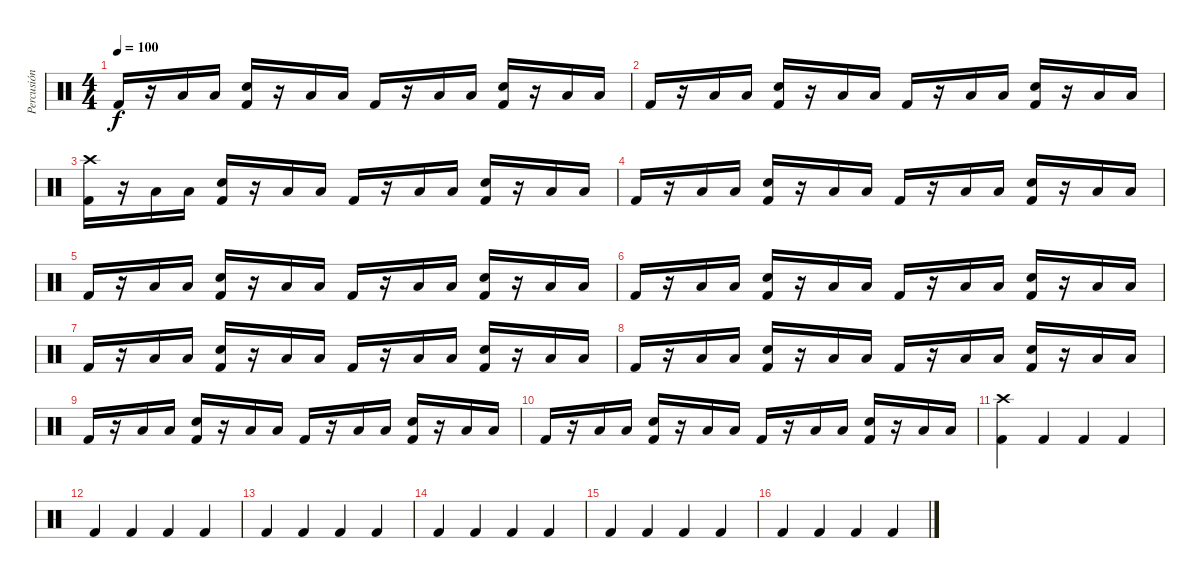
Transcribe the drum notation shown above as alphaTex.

\track ("Percusión" "Percusión") {instrument percussion}
\staff {score}
\articulation defaults
\ts (4 4)
\tempo 100
\clef neutral
\ks c "Kick (hit) 2".16{dy f}
r.16 "Low Tom (hit)".16 "Low Tom (hit)".16 ("Kick (hit) 2" "Snare (hit) 2").16 r.16 "Low Tom (hit)".16 "Low Tom (hit)".16 "Kick (hit) 2".16 r.16 "Low Tom (hit)".16 "Low Tom (hit)".16 ("Kick (hit) 2" "Snare (hit) 2").16 r.16 "Low Tom (hit)".16 "Low Tom (hit)".16 |
"Kick (hit) 2".16 r.16 "Low Tom (hit)".16 "Low Tom (hit)".16 ("Kick (hit) 2" "Snare (hit) 2").16 r.16 "Low Tom (hit)".16 "Low Tom (hit)".16 "Kick (hit) 2".16 r.16 "Low Tom (hit)".16 "Low Tom (hit)".16 ("Kick (hit) 2" "Snare (hit) 2").16 r.16 "Low Tom (hit)".16 "Low Tom (hit)".16 |
("Kick (hit) 2" "Crash high (hit)").16 r.16 "Low Tom (hit)".16 "Low Tom (hit)".16 ("Kick (hit) 2" "Snare (hit) 2").16 r.16 "Low Tom (hit)".16 "Low Tom (hit)".16 "Kick (hit) 2".16 r.16 "Low Tom (hit)".16 "Low Tom (hit)".16 ("Kick (hit) 2" "Snare (hit) 2").16 r.16 "Low Tom (hit)".16 "Low Tom (hit)".16 |
"Kick (hit) 2".16 r.16 "Low Tom (hit)".16 "Low Tom (hit)".16 ("Kick (hit) 2" "Snare (hit) 2").16 r.16 "Low Tom (hit)".16 "Low Tom (hit)".16 "Kick (hit) 2".16 r.16 "Low Tom (hit)".16 "Low Tom (hit)".16 ("Kick (hit) 2" "Snare (hit) 2").16 r.16 "Low Tom (hit)".16 "Low Tom (hit)".16 |
"Kick (hit) 2".16 r.16 "Low Tom (hit)".16 "Low Tom (hit)".16 ("Kick (hit) 2" "Snare (hit) 2").16 r.16 "Low Tom (hit)".16 "Low Tom (hit)".16 "Kick (hit) 2".16 r.16 "Low Tom (hit)".16 "Low Tom (hit)".16 ("Kick (hit) 2" "Snare (hit) 2").16 r.16 "Low Tom (hit)".16 "Low Tom (hit)".16 |
"Kick (hit) 2".16 r.16 "Low Tom (hit)".16 "Low Tom (hit)".16 ("Kick (hit) 2" "Snare (hit) 2").16 r.16 "Low Tom (hit)".16 "Low Tom (hit)".16 "Kick (hit) 2".16 r.16 "Low Tom (hit)".16 "Low Tom (hit)".16 ("Kick (hit) 2" "Snare (hit) 2").16 r.16 "Low Tom (hit)".16 "Low Tom (hit)".16 |
"Kick (hit) 2".16 r.16 "Low Tom (hit)".16 "Low Tom (hit)".16 ("Kick (hit) 2" "Snare (hit) 2").16 r.16 "Low Tom (hit)".16 "Low Tom (hit)".16 "Kick (hit) 2".16 r.16 "Low Tom (hit)".16 "Low Tom (hit)".16 ("Kick (hit) 2" "Snare (hit) 2").16 r.16 "Low Tom (hit)".16 "Low Tom (hit)".16 |
"Kick (hit) 2".16 r.16 "Low Tom (hit)".16 "Low Tom (hit)".16 ("Kick (hit) 2" "Snare (hit) 2").16 r.16 "Low Tom (hit)".16 "Low Tom (hit)".16 "Kick (hit) 2".16 r.16 "Low Tom (hit)".16 "Low Tom (hit)".16 ("Kick (hit) 2" "Snare (hit) 2").16 r.16 "Low Tom (hit)".16 "Low Tom (hit)".16 |
"Kick (hit) 2".16 r.16 "Low Tom (hit)".16 "Low Tom (hit)".16 ("Kick (hit) 2" "Snare (hit) 2").16 r.16 "Low Tom (hit)".16 "Low Tom (hit)".16 "Kick (hit) 2".16 r.16 "Low Tom (hit)".16 "Low Tom (hit)".16 ("Kick (hit) 2" "Snare (hit) 2").16 r.16 "Low Tom (hit)".16 "Low Tom (hit)".16 |
"Kick (hit) 2".16 r.16 "Low Tom (hit)".16 "Low Tom (hit)".16 ("Kick (hit) 2" "Snare (hit) 2").16 r.16 "Low Tom (hit)".16 "Low Tom (hit)".16 "Kick (hit) 2".16 r.16 "Low Tom (hit)".16 "Low Tom (hit)".16 ("Kick (hit) 2" "Snare (hit) 2").16 r.16 "Low Tom (hit)".16 "Low Tom (hit)".16 |
("Kick (hit) 2" "Crash high (hit)").4 "Kick (hit) 2".4 "Kick (hit) 2".4 "Kick (hit) 2".4 |
"Kick (hit) 2".4 "Kick (hit) 2".4 "Kick (hit) 2".4 "Kick (hit) 2".4 |
"Kick (hit) 2".4 "Kick (hit) 2".4 "Kick (hit) 2".4 "Kick (hit) 2".4 |
"Kick (hit) 2".4 "Kick (hit) 2".4 "Kick (hit) 2".4 "Kick (hit) 2".4 |
"Kick (hit) 2".4 "Kick (hit) 2".4 "Kick (hit) 2".4 "Kick (hit) 2".4 |
"Kick (hit) 2".4 "Kick (hit) 2".4 "Kick (hit) 2".4 "Kick (hit) 2".4
